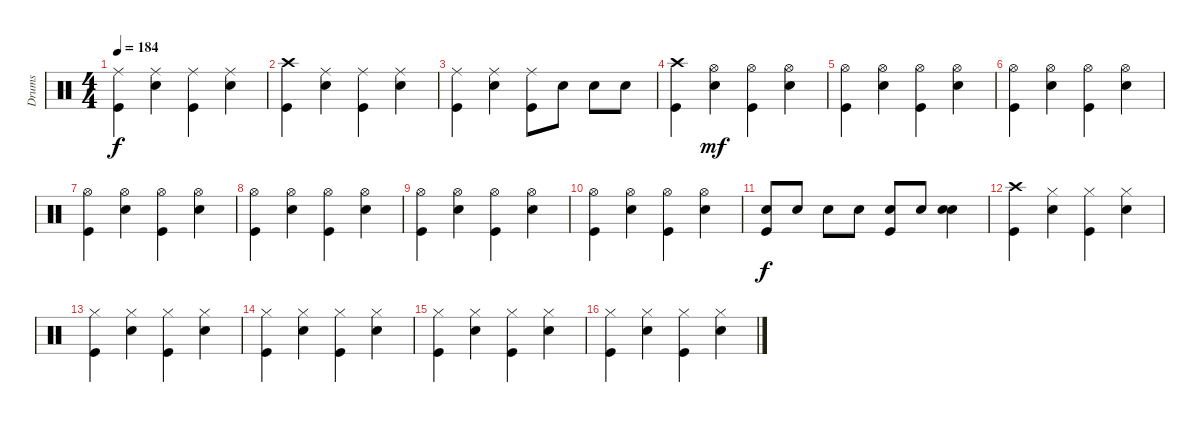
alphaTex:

\track ("Drums" "Drums") {instrument percussion}
\staff {score}
\articulation defaults
\ts (4 4)
\tempo 184
\clef neutral
\ks c
("Ride (middle)" "Kick (hit)").4{dy f} ("Ride (middle)" "Snare (hit) 2").4 ("Ride (middle)" "Kick (hit)").4 ("Ride (middle)" "Snare (hit) 2").4 |
("Crash high (hit)" "Kick (hit)").4 ("Ride (middle)" "Electric Snare (hit)").4 ("Ride (middle)" "Kick (hit)").4 ("Ride (middle)" "Electric Snare (hit)").4 |
("Ride (middle)" "Kick (hit)").4 ("Ride (middle)" "Electric Snare (hit)").4 ("Ride (middle)" "Kick (hit)").8 "Electric Snare (hit)".8 "Electric Snare (hit)".8 "Electric Snare (hit)".8 |
("Crash high (hit)" "Kick (hit)").4 ("Hi-Hat (open)" "Electric Snare (hit)").4{dy mf} ("Hi-Hat (open)" "Kick (hit)").4 ("Hi-Hat (open)" "Electric Snare (hit)").4 |
("Hi-Hat (open)" "Kick (hit)").4 ("Hi-Hat (open)" "Electric Snare (hit)").4 ("Hi-Hat (open)" "Kick (hit)").4 ("Hi-Hat (open)" "Electric Snare (hit)").4 |
("Hi-Hat (open)" "Kick (hit)").4 ("Hi-Hat (open)" "Electric Snare (hit)").4 ("Hi-Hat (open)" "Kick (hit)").4 ("Hi-Hat (open)" "Electric Snare (hit)").4 |
("Hi-Hat (open)" "Kick (hit)").4 ("Hi-Hat (open)" "Electric Snare (hit)").4 ("Hi-Hat (open)" "Kick (hit)").4 ("Hi-Hat (open)" "Electric Snare (hit)").4 |
("Hi-Hat (open)" "Kick (hit)").4 ("Hi-Hat (open)" "Electric Snare (hit)").4 ("Hi-Hat (open)" "Kick (hit)").4 ("Hi-Hat (open)" "Electric Snare (hit)").4 |
("Hi-Hat (open)" "Kick (hit)").4 ("Hi-Hat (open)" "Electric Snare (hit)").4 ("Hi-Hat (open)" "Kick (hit)").4 ("Hi-Hat (open)" "Electric Snare (hit)").4 |
("Hi-Hat (open)" "Kick (hit)").4 ("Hi-Hat (open)" "Electric Snare (hit)").4 ("Hi-Hat (open)" "Kick (hit)").4 ("Hi-Hat (open)" "Electric Snare (hit)").4 |
("Electric Snare (hit)" "Kick (hit)").8{dy f} "Electric Snare (hit)".8 "Electric Snare (hit)".8 "Electric Snare (hit)".8 ("Electric Snare (hit)" "Kick (hit)").8 "Electric Snare (hit)".8 ("Electric Snare (hit)" "Electric Snare (hit)").4 |
("Crash high (hit)" "Kick (hit)").4 ("Hi-Hat (closed)" "Electric Snare (hit)").4 ("Hi-Hat (closed)" "Kick (hit)").4 ("Hi-Hat (closed)" "Electric Snare (hit)").4 |
("Hi-Hat (closed)" "Kick (hit)").4 ("Hi-Hat (closed)" "Electric Snare (hit)").4 ("Hi-Hat (closed)" "Kick (hit)").4 ("Hi-Hat (closed)" "Electric Snare (hit)").4 |
("Hi-Hat (closed)" "Kick (hit)").4 ("Hi-Hat (closed)" "Electric Snare (hit)").4 ("Hi-Hat (closed)" "Kick (hit)").4 ("Hi-Hat (closed)" "Electric Snare (hit)").4 |
("Hi-Hat (closed)" "Kick (hit)").4 ("Hi-Hat (closed)" "Electric Snare (hit)").4 ("Hi-Hat (closed)" "Kick (hit)").4 ("Hi-Hat (closed)" "Electric Snare (hit)").4 |
("Hi-Hat (closed)" "Kick (hit)").4 ("Hi-Hat (closed)" "Electric Snare (hit)").4 ("Hi-Hat (closed)" "Kick (hit)").4 ("Hi-Hat (closed)" "Electric Snare (hit)").4
